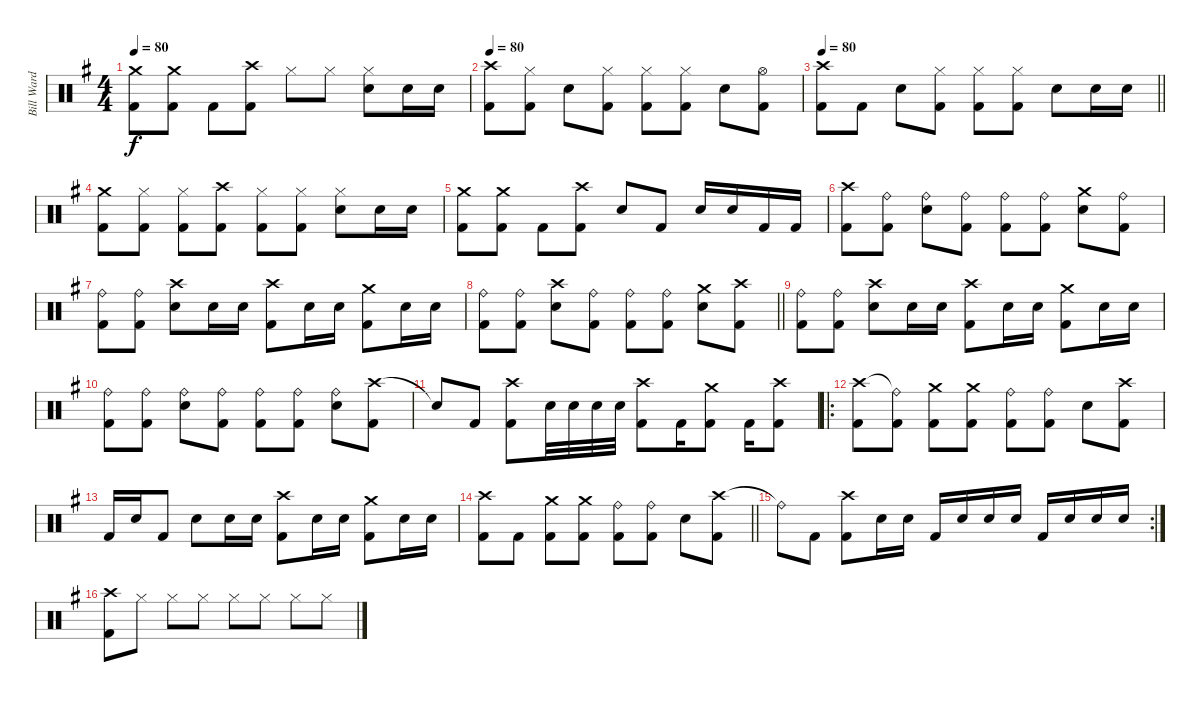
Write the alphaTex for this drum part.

\track ("Bill Ward" "Bill Ward") {instrument percussion}
\staff {score}
\articulation defaults
\ts (4 4)
\tempo 80
\clef neutral
\ks g
("Crash medium (hit)" "Kick (hit) 2").8{dy f} ("Crash medium (hit)" "Kick (hit) 2").8 "Kick (hit) 2".8 ("Crash high (hit)" "Kick (hit) 2").8 "Hi-Hat (closed)".8 "Hi-Hat (closed)".8 ("Hi-Hat (closed)" "Snare (hit) 2").8 "Snare (hit) 2".16 "Snare (hit) 2".16 |
\tempo 80
("Crash high (hit)" "Kick (hit) 2").8 ("Hi-Hat (closed)" "Kick (hit) 2").8 "Snare (hit) 2".8 ("Hi-Hat (closed)" "Kick (hit) 2").8 ("Hi-Hat (closed)" "Kick (hit) 2").8 ("Hi-Hat (closed)" "Kick (hit) 2").8 "Snare (hit) 2".8 ("Hi-Hat (open)" "Kick (hit) 2").8 |
\tempo 80
\barLineRight lightlight
("Crash high (hit)" "Kick (hit) 2").8 "Kick (hit) 2".8 "Snare (hit) 2".8 ("Hi-Hat (closed)" "Kick (hit) 2").8 ("Hi-Hat (closed)" "Kick (hit) 2").8 ("Hi-Hat (closed)" "Kick (hit) 2").8 "Snare (hit) 2".8 "Snare (hit) 2".16 "Snare (hit) 2".16 |
("Crash medium (hit)" "Kick (hit) 2").8 ("Hi-Hat (closed)" "Kick (hit) 2").8 ("Hi-Hat (closed)" "Kick (hit) 2").8 ("Crash high (hit)" "Kick (hit) 2").8 ("Hi-Hat (closed)" "Kick (hit) 2").8 ("Hi-Hat (closed)" "Kick (hit) 2").8 ("Hi-Hat (closed)" "Snare (hit) 2").8 "Snare (hit) 2".16 "Snare (hit) 2".16 |
("Crash medium (hit)" "Kick (hit) 2").8 ("Crash medium (hit)" "Kick (hit) 2").8 "Kick (hit) 2".8 ("Crash high (hit)" "Kick (hit) 2").8 "Snare (hit) 2".8 "Kick (hit) 2".8 "Snare (hit) 2".16 "Snare (hit) 2".16 "Kick (hit) 2".16 "Kick (hit) 2".16 |
("Crash high (hit)" "Kick (hit) 2").8 ("Ride (bell)" "Kick (hit) 2").8 ("Ride (bell)" "Snare (hit) 2").8 ("Ride (bell)" "Kick (hit) 2").8 ("Ride (bell)" "Kick (hit) 2").8 ("Ride (bell)" "Kick (hit) 2").8 ("Crash medium (hit)" "Snare (hit) 2").8 ("Ride (bell)" "Kick (hit) 2").8 |
("Ride (bell)" "Kick (hit) 2").8 ("Ride (bell)" "Kick (hit) 2").8 ("Crash high (hit)" "Snare (hit) 2").8 "Snare (hit) 2".16 "Snare (hit) 2".16 ("Crash high (hit)" "Kick (hit) 2").8 "Snare (hit) 2".16 "Snare (hit) 2".16 ("Crash medium (hit)" "Kick (hit) 2").8 "Snare (hit) 2".16 "Snare (hit) 2".16 |
\barLineRight lightlight
("Ride (bell)" "Kick (hit) 2").8 ("Ride (bell)" "Kick (hit) 2").8 ("Crash high (hit)" "Snare (hit) 2").8 ("Ride (bell)" "Kick (hit) 2").8 ("Ride (bell)" "Kick (hit) 2").8 ("Ride (bell)" "Kick (hit) 2").8 ("Crash medium (hit)" "Snare (hit) 2").8 ("Crash high (hit)" "Kick (hit) 2").8 |
("Ride (bell)" "Kick (hit) 2").8 ("Ride (bell)" "Kick (hit) 2").8 ("Crash high (hit)" "Snare (hit) 2").8 "Snare (hit) 2".16 "Snare (hit) 2".16 ("Crash high (hit)" "Kick (hit) 2").8 "Snare (hit) 2".16 "Snare (hit) 2".16 ("Crash medium (hit)" "Kick (hit) 2").8 "Snare (hit) 2".16 "Snare (hit) 2".16 |
("Ride (bell)" "Kick (hit) 2").8 ("Ride (bell)" "Kick (hit) 2").8 ("Ride (bell)" "Snare (hit) 2").8 ("Ride (bell)" "Kick (hit) 2").8 ("Ride (bell)" "Kick (hit) 2").8 ("Ride (bell)" "Kick (hit) 2").8 ("Ride (bell)" "Snare (hit) 2").8 ("Crash high (hit)" "Kick (hit) 2").8 |
"Snare (hit)"{t}.8 "Kick (hit) 2".8 ("Crash high (hit)" "Kick (hit) 2").8 "Snare (hit) 2".32 "Snare (hit) 2".32 "Snare (hit) 2".32 "Snare (hit) 2".32 ("Crash high (hit)" "Kick (hit) 2").8 "Kick (hit) 2".16 ("Crash medium (hit)" "Kick (hit) 2").8 "Kick (hit) 2".16 ("Crash high (hit)" "Kick (hit) 2").8 |
\ro
("Crash high (hit)" "Kick (hit) 2").8 ("Ride (bell)"{t} "Kick (hit) 2").8 ("Crash medium (hit)" "Kick (hit) 2").8 ("Crash medium (hit)" "Kick (hit) 2").8 ("Ride (bell)" "Kick (hit) 2").8 ("Ride (bell)" "Kick (hit) 2").8 "Snare (hit) 2".8 ("Crash high (hit)" "Kick (hit) 2").8 |
"Kick (hit) 2".16 "Snare (hit) 2".16 "Kick (hit) 2".8 "Snare (hit) 2".8 "Snare (hit) 2".16 "Snare (hit) 2".16 ("Crash high (hit)" "Kick (hit) 2").8 "Snare (hit) 2".16 "Snare (hit) 2".16 ("Crash medium (hit)" "Kick (hit) 2").8 "Snare (hit) 2".16 "Snare (hit) 2".16 |
\barLineRight lightlight
("Crash high (hit)" "Kick (hit) 2").8 "Kick (hit) 2".8 ("Crash medium (hit)" "Kick (hit) 2").8 ("Crash medium (hit)" "Kick (hit) 2").8 ("Ride (bell)" "Kick (hit) 2").8 ("Ride (bell)" "Kick (hit) 2").8 "Snare (hit) 2".8 ("Crash high (hit)" "Kick (hit) 2").8 |
\rc 2 "Ride (bell)"{t}.8 "Kick (hit) 2".8
("Crash high (hit)" "Kick (hit) 2").8 "Snare (hit) 2".16 "Snare (hit) 2".16 "Kick (hit) 2".16 "Snare (hit) 2".16 "Snare (hit) 2".16 "Snare (hit) 2".16 "Kick (hit) 2".16 "Snare (hit) 2".16 "Snare (hit) 2".16 "Snare (hit) 2".16 |
("Crash high (hit)" "Kick (hit) 2").8 "Hi-Hat (closed)".8 "Hi-Hat (closed)".8 "Hi-Hat (closed)".8 "Hi-Hat (closed)".8 "Hi-Hat (closed)".8 "Hi-Hat (closed)".8 "Hi-Hat (closed)".8
